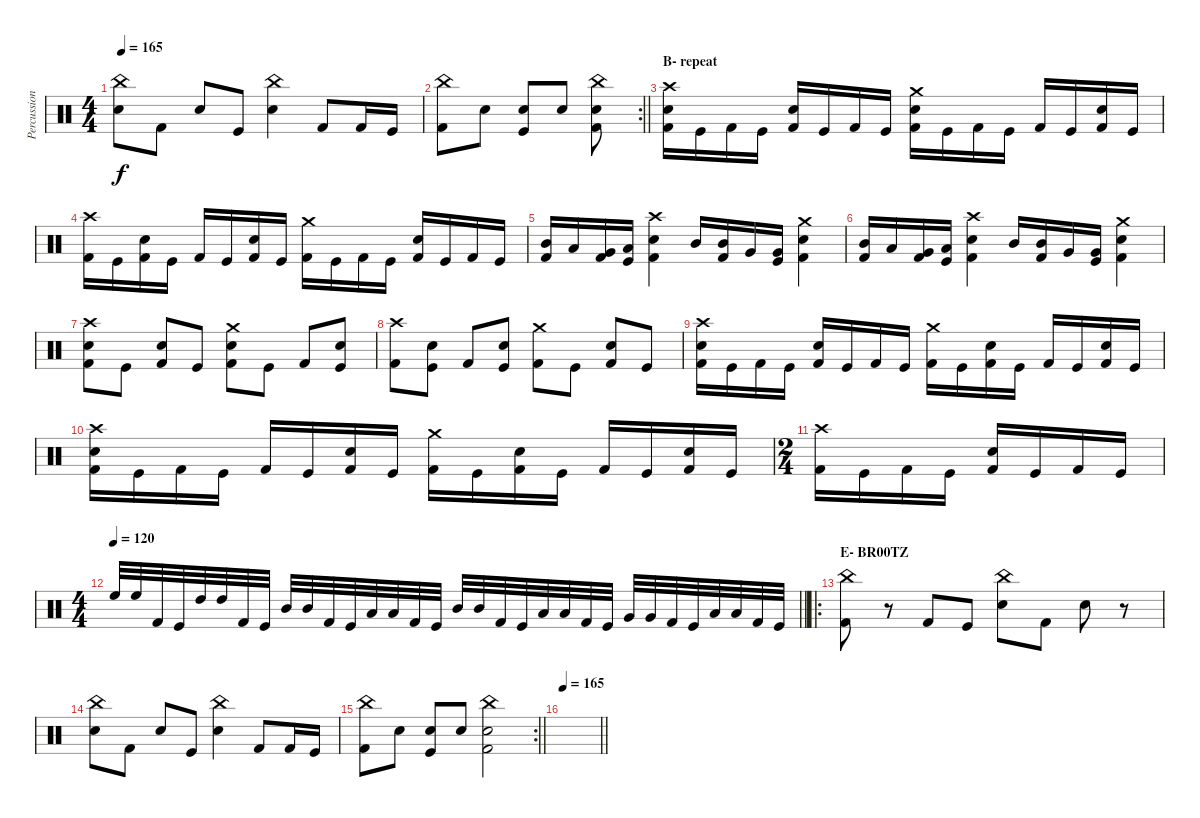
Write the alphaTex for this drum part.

\track ("Percussion" "Percussion") {instrument percussion}
\staff {score}
\articulation defaults
\ts (4 4)
\tempo 165
\clef neutral
\ks c
("China (hit)" "Electric Snare (hit)").8{dy f} "Kick (hit) 2".8 "Electric Snare (hit)".8 "Kick (hit)".8 ("China (hit)" "Electric Snare (hit)").4 "Kick (hit) 2".8 "Kick (hit) 2".16 "Kick (hit)".16 |
\rc 2
\barLineRight lightlight
("China (hit)" "Kick (hit) 2").8 "Electric Snare (hit)".8 ("Electric Snare (hit)" "Kick (hit)").8 "Electric Snare (hit)".8 ("China (hit)" "Electric Snare (hit)" "Kick (hit) 2").8 |
\section ("" "B- repeat")
("Crash high (hit)" "Electric Snare (hit)" "Kick (hit) 2").16 "Kick (hit)".16 "Kick (hit) 2".16 "Kick (hit)".16 ("Electric Snare (hit)" "Kick (hit) 2").16 "Kick (hit)".16 "Kick (hit) 2".16 "Kick (hit)".16 ("Crash medium (hit)" "Electric Snare (hit)" "Kick (hit) 2").16 "Kick (hit)".16 "Kick (hit) 2".16 "Kick (hit)".16 "Kick (hit) 2".16 "Kick (hit)".16 ("Electric Snare (hit)" "Kick (hit) 2").16 "Kick (hit)".16 |
("Crash high (hit)" "Kick (hit) 2").16 "Kick (hit)".16 ("Electric Snare (hit)" "Kick (hit) 2").16 "Kick (hit)".16 "Kick (hit) 2".16 "Kick (hit)".16 ("Electric Snare (hit)" "Kick (hit) 2").16 "Kick (hit)".16 ("Crash medium (hit)" "Kick (hit) 2").16 "Kick (hit)".16 "Kick (hit) 2".16 "Kick (hit)".16 ("Electric Snare (hit)" "Kick (hit) 2").16 "Kick (hit)".16 "Kick (hit) 2".16 "Kick (hit)".16 |
("Mid Tom (hit)" "Kick (hit) 2").16 "Low Tom (hit)".16 ("Very Low Tom (hit)" "Kick (hit) 2").16 ("Low Floor Tom (hit)" "Kick (hit)").16 ("Crash high (hit)" "Electric Snare (hit)" "Kick (hit) 2").4 "Mid Tom (hit)".16 ("Mid Tom (hit)" "Kick (hit) 2").16 "Very Low Tom (hit)".16 ("Very Low Tom (hit)" "Kick (hit)").16 ("Crash medium (hit)" "Electric Snare (hit)" "Kick (hit) 2").4 |
("Mid Tom (hit)" "Kick (hit) 2").16 "Low Tom (hit)".16 ("Very Low Tom (hit)" "Kick (hit) 2").16 ("Low Floor Tom (hit)" "Kick (hit)").16 ("Crash high (hit)" "Electric Snare (hit)" "Kick (hit) 2").4 "Mid Tom (hit)".16 ("Mid Tom (hit)" "Kick (hit) 2").16 "Very Low Tom (hit)".16 ("Very Low Tom (hit)" "Kick (hit)").16 ("Crash medium (hit)" "Electric Snare (hit)" "Kick (hit) 2").4 |
("Crash high (hit)" "Electric Snare (hit)" "Kick (hit) 2").8 "Kick (hit)".8 ("Electric Snare (hit)" "Kick (hit) 2").8 "Kick (hit)".8 ("Crash medium (hit)" "Electric Snare (hit)" "Kick (hit) 2").8 "Kick (hit)".8 "Kick (hit) 2".8 ("Electric Snare (hit)" "Kick (hit)").8 |
("Crash high (hit)" "Kick (hit) 2").8 ("Electric Snare (hit)" "Kick (hit)").8 "Kick (hit) 2".8 ("Electric Snare (hit)" "Kick (hit)").8 ("Crash medium (hit)" "Kick (hit) 2").8 "Kick (hit)".8 ("Electric Snare (hit)" "Kick (hit) 2").8 "Kick (hit)".8 |
("Crash high (hit)" "Electric Snare (hit)" "Kick (hit) 2").16 "Kick (hit)".16 "Kick (hit) 2".16 "Kick (hit)".16 ("Electric Snare (hit)" "Kick (hit) 2").16 "Kick (hit)".16 "Kick (hit) 2".16 "Kick (hit)".16 ("Crash medium (hit)" "Kick (hit) 2").16 "Kick (hit)".16 ("Electric Snare (hit)" "Kick (hit) 2").16 "Kick (hit)".16 "Kick (hit) 2".16 "Kick (hit)".16 ("Electric Snare (hit)" "Kick (hit) 2").16 "Kick (hit)".16 |
("Crash high (hit)" "Electric Snare (hit)" "Kick (hit) 2").16 "Kick (hit)".16 "Kick (hit) 2".16 "Kick (hit)".16 "Kick (hit) 2".16 "Kick (hit)".16 ("Electric Snare (hit)" "Kick (hit) 2").16 "Kick (hit)".16 ("Crash medium (hit)" "Kick (hit) 2").16 "Kick (hit)".16 ("Electric Snare (hit)" "Kick (hit) 2").16 "Kick (hit)".16 "Kick (hit) 2".16 "Kick (hit)".16 ("Electric Snare (hit)" "Kick (hit) 2").16 "Kick (hit)".16 |
\ts (2 4)
("Crash high (hit)" "Kick (hit) 2").16 "Kick (hit)".16 "Kick (hit) 2".16 "Kick (hit)".16 ("Electric Snare (hit)" "Kick (hit) 2").16 "Kick (hit)".16 "Kick (hit) 2".16 "Kick (hit)".16 |
\ts (4 4)
\tempo 120
\barLineRight lightlight "High Floor Tom (hit)".32 "High Floor Tom (hit)".32 "Kick (hit) 2".32 "Kick (hit)".32 "High Tom (hit)".32 "High Tom (hit)".32 "Kick (hit) 2".32 "Kick (hit)".32 "Mid Tom (hit)".32 "Mid Tom (hit)".32 "Kick (hit) 2".32 "Kick (hit)".32 "Low Tom (hit)".32 "Low Tom (hit)".32 "Kick (hit) 2".32 "Kick (hit)".32 "Mid Tom (hit)".32 "Mid Tom (hit)".32 "Kick (hit) 2".32 "Kick (hit)".32 "Low Tom (hit)".32 "Low Tom (hit)".32 "Kick (hit) 2".32 "Kick (hit)".32 "Very Low Tom (hit)".32 "Very Low Tom (hit)".32 "Kick (hit) 2".32 "Kick (hit)".32 "Low Floor Tom (hit)".32 "Low Floor Tom (hit)".32 "Kick (hit) 2".32 "Kick (hit)".32
|
\ro
\section ("" "E- BR00TZ")
("China (hit)" "Kick (hit) 2").8 r.8 "Kick (hit) 2".8 "Kick (hit)".8 ("China (hit)" "Electric Snare (hit)").8 "Kick (hit) 2".8 "Electric Snare (hit)".8 r.8 |
("China (hit)" "Electric Snare (hit)").8 "Kick (hit) 2".8 "Electric Snare (hit)".8 "Kick (hit)".8 ("China (hit)" "Electric Snare (hit)").4 "Kick (hit) 2".8 "Kick (hit) 2".16 "Kick (hit)".16 |
\rc 2
\barLineRight lightlight
("China (hit)" "Kick (hit) 2").8 "Electric Snare (hit)".8 ("Electric Snare (hit)" "Kick (hit)").8 "Electric Snare (hit)".8 ("China (hit)" "Electric Snare (hit)" "Kick (hit) 2").2 |
\tempo 165
\barLineRight lightlight
